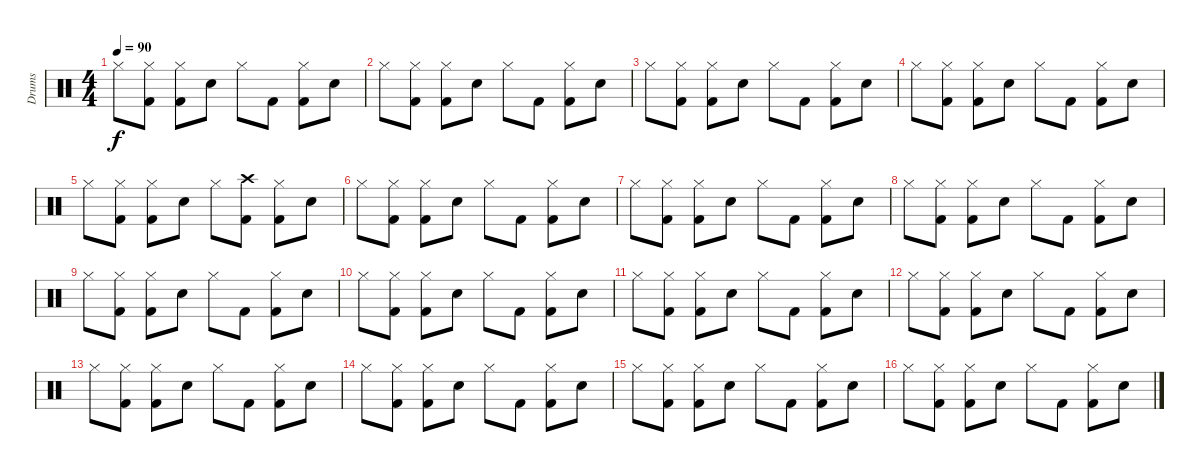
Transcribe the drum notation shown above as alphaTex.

\track ("Drums" "Drums") {instrument percussion}
\staff {score}
\articulation defaults
\ts (4 4)
\tempo 90
\clef neutral
\ks c "Hi-Hat (closed)".8{dy f}
("Hi-Hat (closed)" "Kick (hit) 2").8 ("Hi-Hat (closed)" "Kick (hit) 2").8 "Snare (hit) 2".8 "Hi-Hat (closed)".8 "Kick (hit) 2".8 ("Hi-Hat (closed)" "Kick (hit) 2").8 "Snare (hit) 2".8 |
"Hi-Hat (closed)".8 ("Hi-Hat (closed)" "Kick (hit) 2").8 ("Hi-Hat (closed)" "Kick (hit) 2").8 "Snare (hit) 2".8 "Hi-Hat (closed)".8 "Kick (hit) 2".8 ("Hi-Hat (closed)" "Kick (hit) 2").8 "Snare (hit) 2".8 |
"Hi-Hat (closed)".8 ("Hi-Hat (closed)" "Kick (hit) 2").8 ("Hi-Hat (closed)" "Kick (hit) 2").8 "Snare (hit) 2".8 "Hi-Hat (closed)".8 "Kick (hit) 2".8 ("Hi-Hat (closed)" "Kick (hit) 2").8 "Snare (hit) 2".8 |
"Hi-Hat (closed)".8 ("Hi-Hat (closed)" "Kick (hit) 2").8 ("Hi-Hat (closed)" "Kick (hit) 2").8 "Snare (hit) 2".8 "Hi-Hat (closed)".8 "Kick (hit) 2".8 ("Hi-Hat (closed)" "Kick (hit) 2").8 "Snare (hit) 2".8 |
"Hi-Hat (closed)".8 ("Hi-Hat (closed)" "Kick (hit) 2").8 ("Hi-Hat (closed)" "Kick (hit) 2").8 "Snare (hit) 2".8 "Hi-Hat (closed)".8 ("Crash high (hit)" "Kick (hit) 2").8 ("Hi-Hat (closed)" "Kick (hit) 2").8 "Snare (hit) 2".8 |
"Hi-Hat (closed)".8 ("Hi-Hat (closed)" "Kick (hit) 2").8 ("Hi-Hat (closed)" "Kick (hit) 2").8 "Snare (hit) 2".8 "Hi-Hat (closed)".8 "Kick (hit) 2".8 ("Hi-Hat (closed)" "Kick (hit) 2").8 "Snare (hit) 2".8 |
"Hi-Hat (closed)".8 ("Hi-Hat (closed)" "Kick (hit) 2").8 ("Hi-Hat (closed)" "Kick (hit) 2").8 "Snare (hit) 2".8 "Hi-Hat (closed)".8 "Kick (hit) 2".8 ("Hi-Hat (closed)" "Kick (hit) 2").8 "Snare (hit) 2".8 |
"Hi-Hat (closed)".8 ("Hi-Hat (closed)" "Kick (hit) 2").8 ("Hi-Hat (closed)" "Kick (hit) 2").8 "Snare (hit) 2".8 "Hi-Hat (closed)".8 "Kick (hit) 2".8 ("Hi-Hat (closed)" "Kick (hit) 2").8 "Snare (hit) 2".8 |
"Hi-Hat (closed)".8 ("Hi-Hat (closed)" "Kick (hit) 2").8 ("Hi-Hat (closed)" "Kick (hit) 2").8 "Snare (hit) 2".8 "Hi-Hat (closed)".8 "Kick (hit) 2".8 ("Hi-Hat (closed)" "Kick (hit) 2").8 "Snare (hit) 2".8 |
"Hi-Hat (closed)".8 ("Hi-Hat (closed)" "Kick (hit) 2").8 ("Hi-Hat (closed)" "Kick (hit) 2").8 "Snare (hit) 2".8 "Hi-Hat (closed)".8 "Kick (hit) 2".8 ("Hi-Hat (closed)" "Kick (hit) 2").8 "Snare (hit) 2".8 |
"Hi-Hat (closed)".8 ("Hi-Hat (closed)" "Kick (hit) 2").8 ("Hi-Hat (closed)" "Kick (hit) 2").8 "Snare (hit) 2".8 "Hi-Hat (closed)".8 "Kick (hit) 2".8 ("Hi-Hat (closed)" "Kick (hit) 2").8 "Snare (hit) 2".8 |
"Hi-Hat (closed)".8 ("Hi-Hat (closed)" "Kick (hit) 2").8 ("Hi-Hat (closed)" "Kick (hit) 2").8 "Snare (hit) 2".8 "Hi-Hat (closed)".8 "Kick (hit) 2".8 ("Hi-Hat (closed)" "Kick (hit) 2").8 "Snare (hit) 2".8 |
"Hi-Hat (closed)".8 ("Hi-Hat (closed)" "Kick (hit) 2").8 ("Hi-Hat (closed)" "Kick (hit) 2").8 "Snare (hit) 2".8 "Hi-Hat (closed)".8 "Kick (hit) 2".8 ("Hi-Hat (closed)" "Kick (hit) 2").8 "Snare (hit) 2".8 |
"Hi-Hat (closed)".8 ("Hi-Hat (closed)" "Kick (hit) 2").8 ("Hi-Hat (closed)" "Kick (hit) 2").8 "Snare (hit) 2".8 "Hi-Hat (closed)".8 "Kick (hit) 2".8 ("Hi-Hat (closed)" "Kick (hit) 2").8 "Snare (hit) 2".8 |
"Hi-Hat (closed)".8 ("Hi-Hat (closed)" "Kick (hit) 2").8 ("Hi-Hat (closed)" "Kick (hit) 2").8 "Snare (hit) 2".8 "Hi-Hat (closed)".8 "Kick (hit) 2".8 ("Hi-Hat (closed)" "Kick (hit) 2").8 "Snare (hit) 2".8 |
"Hi-Hat (closed)".8 ("Hi-Hat (closed)" "Kick (hit) 2").8 ("Hi-Hat (closed)" "Kick (hit) 2").8 "Snare (hit) 2".8 "Hi-Hat (closed)".8 "Kick (hit) 2".8 ("Hi-Hat (closed)" "Kick (hit) 2").8 "Snare (hit) 2".8
